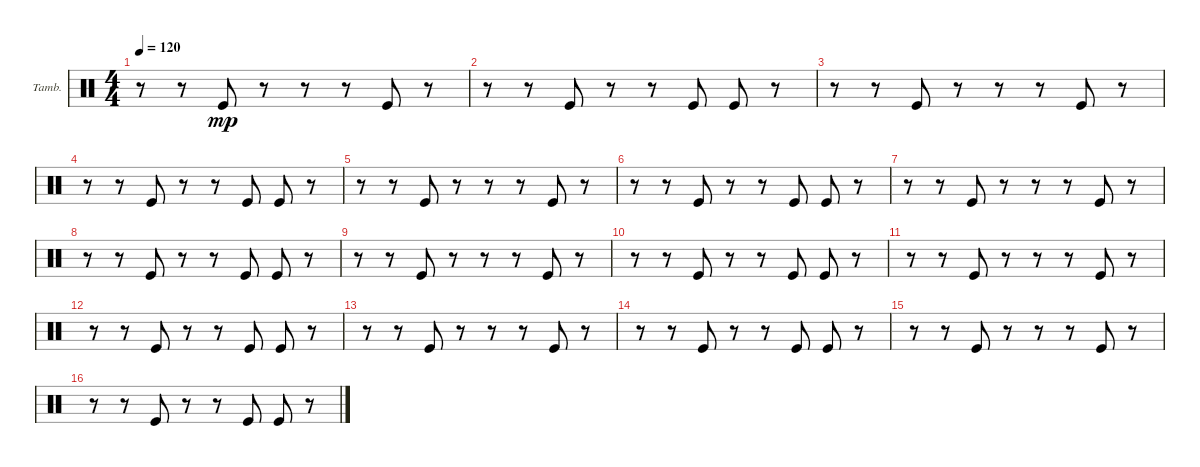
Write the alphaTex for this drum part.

\defaultSystemsLayout 4
\bracketExtendMode groupsimilarinstruments
\firstSystemTrackNameOrientation horizontal
\otherSystemsTrackNameOrientation horizontal
\track ("Tambourine" "Tamb.") {instrument percussion}
\staff {score}
\articulation defaults
\ts (4 4)
\tempo 120
\clef neutral
\scale
0.333333
\ks c
r.8{dy mp} r.8 "Kick (hit)".8 r.8 r.8 r.8 "Kick (hit)".8 r.8 |
\scale
0.333333 r.8 r.8 "Kick (hit)".8 r.8 r.8 "Kick (hit)".8 "Kick (hit)".8 r.8 |
\scale
0.333333 r.8 r.8 "Kick (hit)".8 r.8 r.8 r.8 "Kick (hit)".8 r.8 |
\scale
0.333333 r.8 r.8 "Kick (hit)".8 r.8 r.8 "Kick (hit)".8 "Kick (hit)".8 r.8 |
\scale
0.333333 r.8 r.8 "Kick (hit)".8 r.8 r.8 r.8 "Kick (hit)".8 r.8 |
\scale
0.333333 r.8 r.8 "Kick (hit)".8 r.8 r.8 "Kick (hit)".8 "Kick (hit)".8 r.8 |
\scale
0.333333 r.8 r.8 "Kick (hit)".8 r.8 r.8 r.8 "Kick (hit)".8 r.8 |
\scale
0.333333 r.8 r.8 "Kick (hit)".8 r.8 r.8 "Kick (hit)".8 "Kick (hit)".8 r.8 |
\scale
0.333333 r.8 r.8 "Kick (hit)".8 r.8 r.8 r.8 "Kick (hit)".8 r.8 |
\scale
0.333333 r.8 r.8 "Kick (hit)".8 r.8 r.8 "Kick (hit)".8 "Kick (hit)".8 r.8 |
r.8 r.8 "Kick (hit)".8 r.8 r.8 r.8 "Kick (hit)".8 r.8 |
r.8 r.8 "Kick (hit)".8 r.8 r.8 "Kick (hit)".8 "Kick (hit)".8 r.8 |
r.8 r.8 "Kick (hit)".8 r.8 r.8 r.8 "Kick (hit)".8 r.8 |
r.8 r.8 "Kick (hit)".8 r.8 r.8 "Kick (hit)".8 "Kick (hit)".8 r.8 |
r.8 r.8 "Kick (hit)".8 r.8 r.8 r.8 "Kick (hit)".8 r.8 |
r.8 r.8 "Kick (hit)".8 r.8 r.8 "Kick (hit)".8 "Kick (hit)".8 r.8
